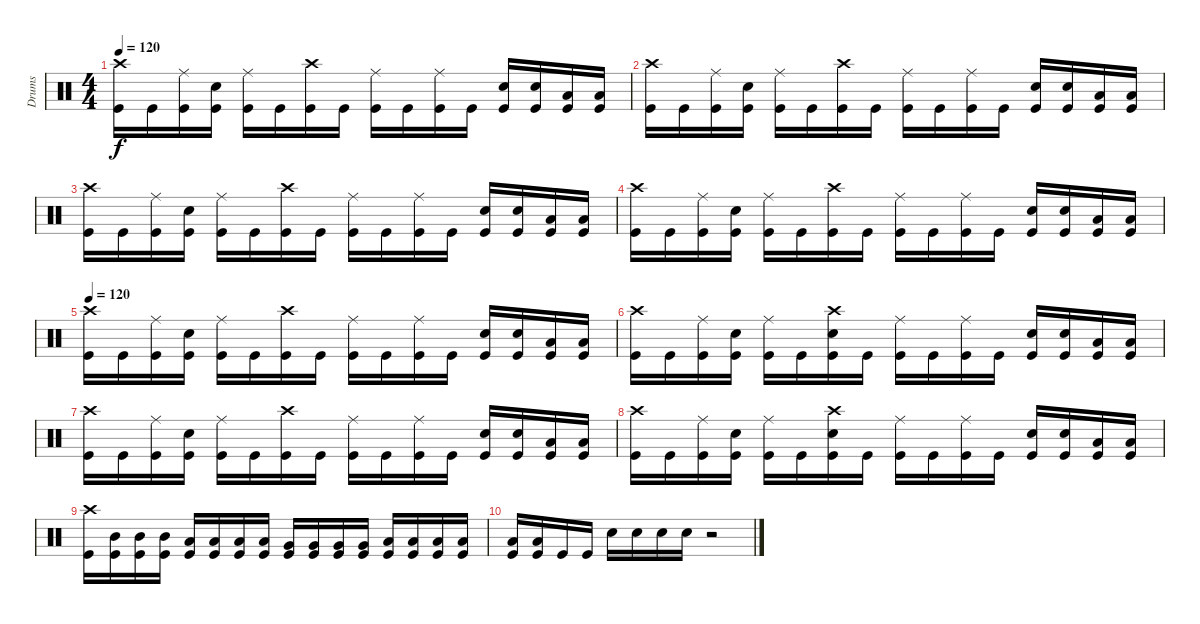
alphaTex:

\track ("Drums" "Drums") {instrument percussion}
\staff {score}
\articulation defaults
\ts (4 4)
\tempo 120
\clef neutral
\ks c
("Crash high (hit)" "Kick (hit)").16{dy f} "Kick (hit)".16 ("Ride (middle)" "Kick (hit)").16 ("Electric Snare (hit)" "Kick (hit)").16 ("Ride (middle)" "Kick (hit)").16 "Kick (hit)".16 ("Crash high (hit)" "Kick (hit)").16 "Kick (hit)".16 ("Ride (middle)" "Kick (hit)").16 "Kick (hit)".16 ("Ride (middle)" "Kick (hit)").16 "Kick (hit)".16 ("Electric Snare (hit)" "Kick (hit)").16 ("Electric Snare (hit)" "Kick (hit)").16 ("Low Tom (hit)" "Kick (hit)").16 ("Low Tom (hit)" "Kick (hit)").16 |
("Crash high (hit)" "Kick (hit)").16 "Kick (hit)".16 ("Ride (middle)" "Kick (hit)").16 ("Electric Snare (hit)" "Kick (hit)").16 ("Ride (middle)" "Kick (hit)").16 "Kick (hit)".16 ("Crash high (hit)" "Kick (hit)").16 "Kick (hit)".16 ("Ride (middle)" "Kick (hit)").16 "Kick (hit)".16 ("Ride (middle)" "Kick (hit)").16 "Kick (hit)".16 ("Electric Snare (hit)" "Kick (hit)").16 ("Electric Snare (hit)" "Kick (hit)").16 ("Low Tom (hit)" "Kick (hit)").16 ("Low Tom (hit)" "Kick (hit)").16 |
("Crash high (hit)" "Kick (hit)").16 "Kick (hit)".16 ("Ride (middle)" "Kick (hit)").16 ("Electric Snare (hit)" "Kick (hit)").16 ("Ride (middle)" "Kick (hit)").16 "Kick (hit)".16 ("Crash high (hit)" "Kick (hit)").16 "Kick (hit)".16 ("Ride (middle)" "Kick (hit)").16 "Kick (hit)".16 ("Ride (middle)" "Kick (hit)").16 "Kick (hit)".16 ("Electric Snare (hit)" "Kick (hit)").16 ("Electric Snare (hit)" "Kick (hit)").16 ("Low Tom (hit)" "Kick (hit)").16 ("Low Tom (hit)" "Kick (hit)").16 |
("Crash high (hit)" "Kick (hit)").16 "Kick (hit)".16 ("Ride (middle)" "Kick (hit)").16 ("Electric Snare (hit)" "Kick (hit)").16 ("Ride (middle)" "Kick (hit)").16 "Kick (hit)".16 ("Crash high (hit)" "Kick (hit)").16 "Kick (hit)".16 ("Ride (middle)" "Kick (hit)").16 "Kick (hit)".16 ("Ride (middle)" "Kick (hit)").16 "Kick (hit)".16 ("Electric Snare (hit)" "Kick (hit)").16 ("Electric Snare (hit)" "Kick (hit)").16 ("Low Tom (hit)" "Kick (hit)").16 ("Low Tom (hit)" "Kick (hit)").16 |
\tempo 120
("Crash high (hit)" "Kick (hit)").16 "Kick (hit)".16 ("Ride (middle)" "Kick (hit)").16 ("Electric Snare (hit)" "Kick (hit)").16 ("Ride (middle)" "Kick (hit)").16 "Kick (hit)".16 ("Crash high (hit)" "Kick (hit)").16 "Kick (hit)".16 ("Ride (middle)" "Kick (hit)").16 "Kick (hit)".16 ("Ride (middle)" "Kick (hit)").16 "Kick (hit)".16 ("Electric Snare (hit)" "Kick (hit)").16 ("Electric Snare (hit)" "Kick (hit)").16 ("Low Tom (hit)" "Kick (hit)").16 ("Low Tom (hit)" "Kick (hit)").16 |
("Crash high (hit)" "Kick (hit)").16 "Kick (hit)".16 ("Ride (middle)" "Kick (hit)").16 ("Electric Snare (hit)" "Kick (hit)").16 ("Ride (middle)" "Kick (hit)").16 "Kick (hit)".16 ("Crash high (hit)" "Electric Snare (hit)" "Kick (hit)").16 "Kick (hit)".16 ("Ride (middle)" "Kick (hit)").16 "Kick (hit)".16 ("Ride (middle)" "Kick (hit)").16 "Kick (hit)".16 ("Electric Snare (hit)" "Kick (hit)").16 ("Electric Snare (hit)" "Kick (hit)").16 ("Low Tom (hit)" "Kick (hit)").16 ("Low Tom (hit)" "Kick (hit)").16 |
("Crash high (hit)" "Kick (hit)").16 "Kick (hit)".16 ("Ride (middle)" "Kick (hit)").16 ("Electric Snare (hit)" "Kick (hit)").16 ("Ride (middle)" "Kick (hit)").16 "Kick (hit)".16 ("Crash high (hit)" "Kick (hit)").16 "Kick (hit)".16 ("Ride (middle)" "Kick (hit)").16 "Kick (hit)".16 ("Ride (middle)" "Kick (hit)").16 "Kick (hit)".16 ("Electric Snare (hit)" "Kick (hit)").16 ("Electric Snare (hit)" "Kick (hit)").16 ("Low Tom (hit)" "Kick (hit)").16 ("Low Tom (hit)" "Kick (hit)").16 |
("Crash high (hit)" "Kick (hit)").16 "Kick (hit)".16 ("Ride (middle)" "Kick (hit)").16 ("Electric Snare (hit)" "Kick (hit)").16 ("Ride (middle)" "Kick (hit)").16 "Kick (hit)".16 ("Crash high (hit)" "Electric Snare (hit)" "Kick (hit)").16 "Kick (hit)".16 ("Ride (middle)" "Kick (hit)").16 "Kick (hit)".16 ("Ride (middle)" "Kick (hit)").16 "Kick (hit)".16 ("Electric Snare (hit)" "Kick (hit)").16 ("Electric Snare (hit)" "Kick (hit)").16 ("Low Tom (hit)" "Kick (hit)").16 ("Low Tom (hit)" "Kick (hit)").16 |
("Crash high (hit)" "Kick (hit)").16 ("Mid Tom (hit)" "Kick (hit)").16 ("Mid Tom (hit)" "Kick (hit)").16 ("Mid Tom (hit)" "Kick (hit)").16 ("Low Tom (hit)" "Kick (hit)").16 ("Low Tom (hit)" "Kick (hit)").16 ("Low Tom (hit)" "Kick (hit)").16 ("Low Tom (hit)" "Kick (hit)").16 ("Very Low Tom (hit)" "Kick (hit)").16 ("Very Low Tom (hit)" "Kick (hit)").16 ("Very Low Tom (hit)" "Kick (hit)").16 ("Very Low Tom (hit)" "Kick (hit)").16 ("Low Floor Tom (hit)" "Kick (hit)").16 ("Low Floor Tom (hit)" "Kick (hit)").16 ("Low Floor Tom (hit)" "Kick (hit)").16 ("Low Floor Tom (hit)" "Kick (hit)").16 |
("Low Floor Tom (hit)" "Kick (hit)").16 ("Low Floor Tom (hit)" "Kick (hit)").16 "Kick (hit)".16 "Kick (hit)".16 "Electric Snare (hit)".16 "Electric Snare (hit)".16 "Electric Snare (hit)".16 "Electric Snare (hit)".16 r.2
